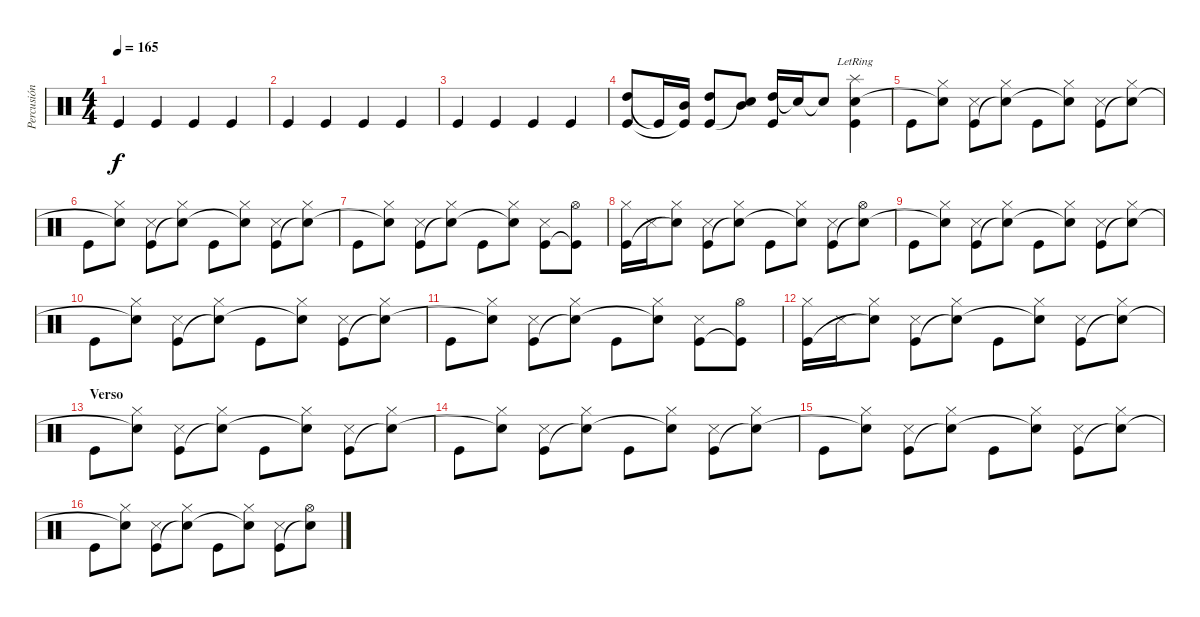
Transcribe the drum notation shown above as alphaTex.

\track ("Percusión" "Percusión") {instrument percussion}
\staff {score}
\articulation defaults
\ts (4 4)
\tempo 165
\clef neutral
\ks c "Kick (hit)".4{dy f} "Kick (hit)".4 "Kick (hit)".4 "Kick (hit)".4
|
"Kick (hit)".4 "Kick (hit)".4 "Kick (hit)".4 "Kick (hit)".4 |
"Kick (hit)".4 "Kick (hit)".4 "Kick (hit)".4 "Kick (hit)".4 |
("High Tom (hit)" "Kick (hit)").8 "Kick (hit)"{t}.16 ("Mid Tom (hit)" "Kick (hit)"{t}).16 ("High Tom (hit)" "Kick (hit)").8 ("Mid Tom (hit)" "Snare (hit)"{t}).8 ("High Tom (hit)" "Kick (hit)").16 "Snare (hit)"{t}.16 "Snare (hit)"{t}.8 ("Splash (hit)"{lr} "Snare (hit) 2" "Kick (hit)").4 |
"Kick (hit)".8 ("Hi-Hat (closed)" "Snare (hit)"{t}).8 ("Snare (side stick) 3" "Kick (hit)").8 ("Hi-Hat (closed)" "Snare (hit)"{t}).8 "Kick (hit)".8 ("Hi-Hat (closed)" "Snare (hit)"{t}).8 ("Snare (side stick) 3" "Kick (hit)").8 ("Hi-Hat (closed)" "Snare (hit)"{t}).8 |
"Kick (hit)".8 ("Hi-Hat (closed)" "Snare (hit)"{t}).8 ("Snare (side stick) 3" "Kick (hit)").8 ("Hi-Hat (closed)" "Snare (hit)"{t}).8 "Kick (hit)".8 ("Hi-Hat (closed)" "Snare (hit)"{t}).8 ("Snare (side stick) 3" "Kick (hit)").8 ("Hi-Hat (closed)" "Snare (hit)"{t}).8 |
"Kick (hit)".8 ("Hi-Hat (closed)" "Snare (hit)"{t}).8 ("Snare (side stick) 3" "Kick (hit)").8 ("Hi-Hat (closed)" "Snare (hit)"{t}).8 "Kick (hit)".8 ("Hi-Hat (closed)" "Snare (hit)"{t}).8 ("Snare (side stick) 3" "Kick (hit)").8 ("Hi-Hat (open)" "Kick (hit)"{t}).8 |
("Hi-Hat (closed)" "Kick (hit)").16 "Snare (side stick) 3".16 ("Hi-Hat (closed)" "Snare (hit)"{t}).8 ("Snare (side stick) 3" "Kick (hit)").8 ("Hi-Hat (closed)" "Snare (hit)"{t}).8 "Kick (hit)".8 ("Hi-Hat (closed)" "Snare (hit)"{t}).8 ("Snare (side stick) 3" "Kick (hit)").8 ("Hi-Hat (open)" "Snare (hit)"{t}).8 |
"Kick (hit)".8 ("Hi-Hat (closed)" "Snare (hit)"{t}).8 ("Snare (side stick) 3" "Kick (hit)").8 ("Hi-Hat (closed)" "Snare (hit)"{t}).8 "Kick (hit)".8 ("Hi-Hat (closed)" "Snare (hit)"{t}).8 ("Snare (side stick) 3" "Kick (hit)").8 ("Hi-Hat (closed)" "Snare (hit)"{t}).8 |
"Kick (hit)".8 ("Hi-Hat (closed)" "Snare (hit)"{t}).8 ("Snare (side stick) 3" "Kick (hit)").8 ("Hi-Hat (closed)" "Snare (hit)"{t}).8 "Kick (hit)".8 ("Hi-Hat (closed)" "Snare (hit)"{t}).8 ("Snare (side stick) 3" "Kick (hit)").8 ("Hi-Hat (closed)" "Snare (hit)"{t}).8 |
"Kick (hit)".8 ("Hi-Hat (closed)" "Snare (hit)"{t}).8 ("Snare (side stick) 3" "Kick (hit)").8 ("Hi-Hat (closed)" "Snare (hit)"{t}).8 "Kick (hit)".8 ("Hi-Hat (closed)" "Snare (hit)"{t}).8 ("Snare (side stick) 3" "Kick (hit)").8 ("Hi-Hat (open)" "Kick (hit)"{t}).8 |
("Hi-Hat (closed)" "Kick (hit)").16 "Snare (side stick) 3".16 ("Hi-Hat (closed)" "Snare (hit)"{t}).8 ("Snare (side stick) 3" "Kick (hit)").8 ("Hi-Hat (closed)" "Snare (hit)"{t}).8 "Kick (hit)".8 ("Hi-Hat (closed)" "Snare (hit)"{t}).8 ("Snare (side stick) 3" "Kick (hit)").8 ("Hi-Hat (closed)" "Snare (hit)"{t}).8 |
\section ("" "Verso")
"Kick (hit)".8 ("Hi-Hat (closed)" "Snare (hit)"{t}).8 ("Snare (side stick) 3" "Kick (hit)").8 ("Hi-Hat (closed)" "Snare (hit)"{t}).8 "Kick (hit)".8 ("Hi-Hat (closed)" "Snare (hit)"{t}).8 ("Snare (side stick) 3" "Kick (hit)").8 ("Hi-Hat (closed)" "Snare (hit)"{t}).8 |
"Kick (hit)".8 ("Hi-Hat (closed)" "Snare (hit)"{t}).8 ("Snare (side stick) 3" "Kick (hit)").8 ("Hi-Hat (closed)" "Snare (hit)"{t}).8 "Kick (hit)".8 ("Hi-Hat (closed)" "Snare (hit)"{t}).8 ("Snare (side stick) 3" "Kick (hit)").8 ("Hi-Hat (closed)" "Snare (hit)"{t}).8 |
"Kick (hit)".8 ("Hi-Hat (closed)" "Snare (hit)"{t}).8 ("Snare (side stick) 3" "Kick (hit)").8 ("Hi-Hat (closed)" "Snare (hit)"{t}).8 "Kick (hit)".8 ("Hi-Hat (closed)" "Snare (hit)"{t}).8 ("Snare (side stick) 3" "Kick (hit)").8 ("Hi-Hat (closed)" "Snare (hit)"{t}).8 |
"Kick (hit)".8 ("Hi-Hat (closed)" "Snare (hit)"{t}).8 ("Snare (side stick) 3" "Kick (hit)").8 ("Hi-Hat (closed)" "Snare (hit)"{t}).8 "Kick (hit)".8 ("Hi-Hat (closed)" "Snare (hit)"{t}).8 ("Snare (side stick) 3" "Kick (hit)").8 ("Hi-Hat (open)" "Snare (hit)"{t}).8
